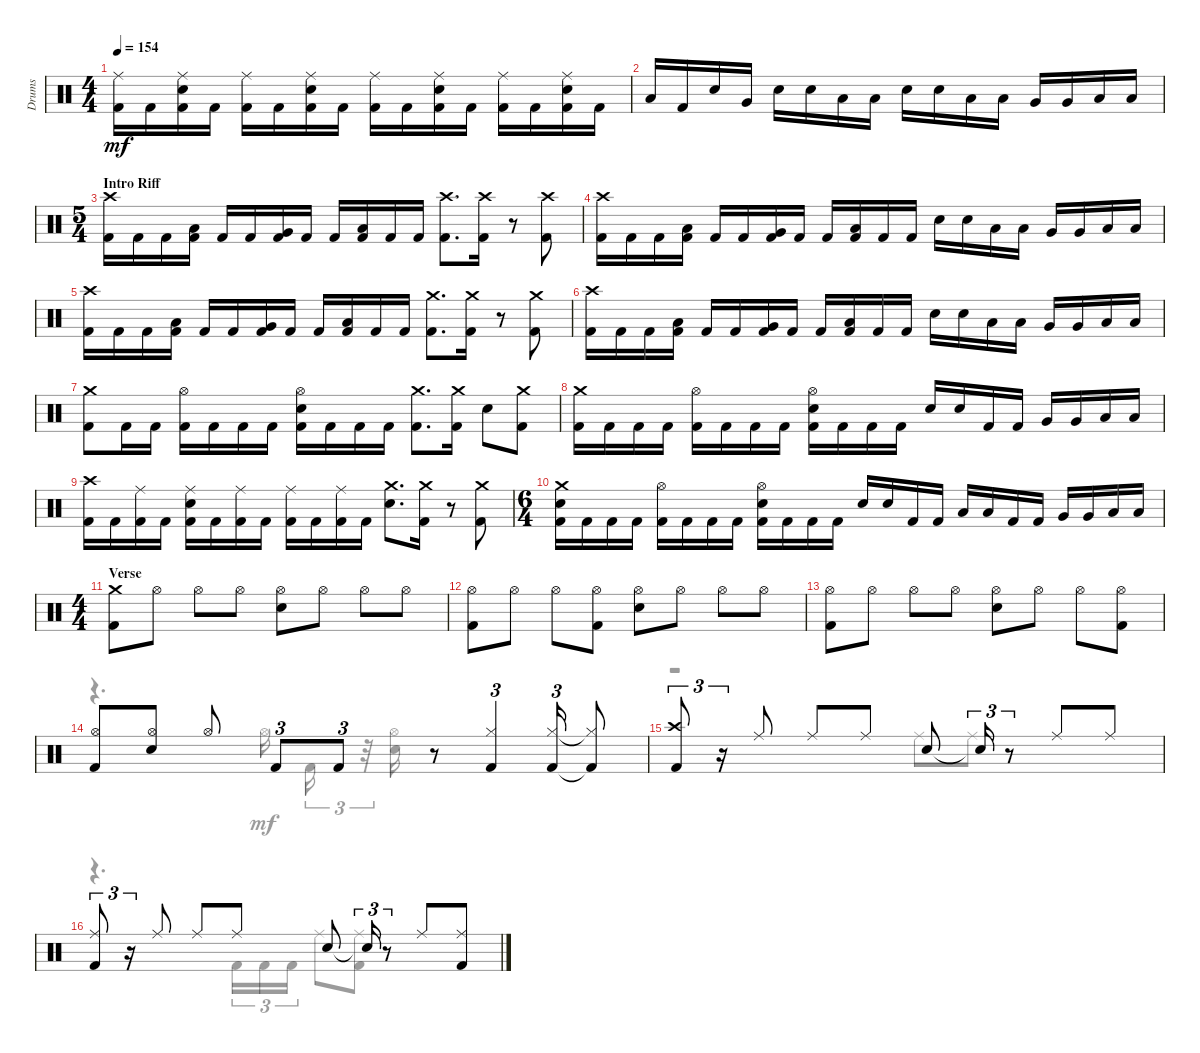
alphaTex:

\track ("Drums" "Drums") {instrument percussion}
\staff {score}
\articulation defaults
\voice
\ts (4 4)
\tempo 154
\clef neutral
\ks aminor
("Ride (middle)" "Kick (hit) 2").16{dy mf} "Kick (hit) 2".16 ("Ride (middle)" "Snare (hit) 2" "Kick (hit) 2").16 "Kick (hit) 2".16 ("Kick (hit) 2" "Ride (middle)").16 "Kick (hit) 2".16 ("Snare (hit) 2" "Ride (middle)" "Kick (hit) 2").16 "Kick (hit) 2".16 ("Kick (hit) 2" "Ride (middle)").16 "Kick (hit) 2".16 ("Kick (hit) 2" "Snare (hit) 2" "Ride (middle)").16 "Kick (hit) 2".16 ("Kick (hit) 2" "Ride (middle)").16 "Kick (hit) 2".16 ("Ride (middle)" "Kick (hit) 2" "Snare (hit) 2").16 "Kick (hit) 2".16 |
"Low Tom (hit)".16 "Kick (hit) 2".16 "Snare (hit) 2".16 "Very Low Tom (hit)".16 "Snare (hit) 2".16 "Snare (hit) 2".16 "Low Floor Tom (hit)".16 "Low Floor Tom (hit)".16 "Snare (hit) 2".16 "Snare (hit) 2".16 "Low Tom (hit)".16 "Low Tom (hit)".16 "Very Low Tom (hit)".16 "Very Low Tom (hit)".16 "Low Floor Tom (hit)".16 "Low Floor Tom (hit)".16 |
\ts (5 4)
\section ("" "Intro Riff")
("Kick (hit) 2" "Crash high (hit)").16 "Kick (hit) 2".16 "Kick (hit) 2".16 ("Kick (hit) 2" "Low Tom (hit)").16 "Kick (hit) 2".16 "Kick (hit) 2".16 ("Very Low Tom (hit)" "Kick (hit) 2").16 "Kick (hit) 2".16 "Kick (hit) 2".16 ("Kick (hit) 2" "Low Floor Tom (hit)").16 "Kick (hit) 2".16 "Kick (hit) 2".16 ("Crash high (hit)" "Kick (hit) 2").8{d} ("Crash high (hit)" "Kick (hit) 2").16 r.8 ("Kick (hit) 2" "Crash high (hit)").8 |
("Kick (hit) 2" "Crash high (hit)").16 "Kick (hit) 2".16 "Kick (hit) 2".16 ("Kick (hit) 2" "Low Tom (hit)").16 "Kick (hit) 2".16 "Kick (hit) 2".16 ("Kick (hit) 2" "Very Low Tom (hit)").16 "Kick (hit) 2".16 "Kick (hit) 2".16 ("Low Floor Tom (hit)" "Kick (hit) 2").16 "Kick (hit) 2".16 "Kick (hit) 2".16 "Snare (hit) 2".16 "Snare (hit) 2".16 "Low Tom (hit)".16 "Low Tom (hit)".16 "Very Low Tom (hit)".16 "Very Low Tom (hit)".16 "Low Floor Tom (hit)".16 "Low Floor Tom (hit)".16 |
("Crash high (hit)" "Kick (hit) 2").16 "Kick (hit) 2".16 "Kick (hit) 2".16 ("Low Tom (hit)" "Kick (hit) 2").16 "Kick (hit) 2".16 "Kick (hit) 2".16 ("Kick (hit) 2" "Very Low Tom (hit)").16 "Kick (hit) 2".16 "Kick (hit) 2".16 ("Kick (hit) 2" "Low Floor Tom (hit)").16 "Kick (hit) 2".16 "Kick (hit) 2".16 ("Kick (hit) 2" "Crash medium (hit)").8{d} ("Crash medium (hit)" "Kick (hit) 2").16 r.8 ("Kick (hit) 2" "Crash medium (hit)").8 |
("Kick (hit) 2" "Crash high (hit)").16 "Kick (hit) 2".16 "Kick (hit) 2".16 ("Kick (hit) 2" "Low Tom (hit)").16 "Kick (hit) 2".16 "Kick (hit) 2".16 ("Kick (hit) 2" "Very Low Tom (hit)").16 "Kick (hit) 2".16 "Kick (hit) 2".16 ("Kick (hit) 2" "Low Floor Tom (hit)").16 "Kick (hit) 2".16 "Kick (hit) 2".16 "Snare (hit) 2".16 "Snare (hit) 2".16 "Low Tom (hit)".16 "Low Tom (hit)".16 "Very Low Tom (hit)".16 "Very Low Tom (hit)".16 "Low Floor Tom (hit)".16 "Low Floor Tom (hit)".16 |
("Kick (hit) 2" "Crash medium (hit)").8 "Kick (hit) 2".16 "Kick (hit) 2".16 ("Kick (hit) 2" "Hi-Hat (open)").16 "Kick (hit) 2".16 "Kick (hit) 2".16 "Kick (hit) 2".16 ("Snare (hit) 2" "Hi-Hat (open)" "Kick (hit) 2").16 "Kick (hit) 2".16 "Kick (hit) 2".16 "Kick (hit) 2".16 ("Kick (hit) 2" "Crash medium (hit)").8{d} ("Crash medium (hit)" "Kick (hit) 2").16 "Snare (hit) 2".8 ("Kick (hit) 2" "Crash medium (hit)").8 |
("Kick (hit) 2" "Crash medium (hit)").16 "Kick (hit) 2".16 "Kick (hit) 2".16 "Kick (hit) 2".16 ("Kick (hit) 2" "Hi-Hat (open)").16 "Kick (hit) 2".16 "Kick (hit) 2".16 "Kick (hit) 2".16 ("Hi-Hat (open)" "Kick (hit) 2" "Snare (hit) 2").16 "Kick (hit) 2".16 "Kick (hit) 2".16 "Kick (hit) 2".16 "Snare (hit) 2".16 "Snare (hit) 2".16 "Kick (hit) 2".16 "Kick (hit) 2".16 "Very Low Tom (hit)".16 "Very Low Tom (hit)".16 "Low Floor Tom (hit)".16 "Low Floor Tom (hit)".16 |
("Crash high (hit)" "Kick (hit) 2").16 "Kick (hit) 2".16 ("Ride (middle)" "Kick (hit) 2").16 "Kick (hit) 2".16 ("Ride (middle)" "Kick (hit) 2" "Snare (hit) 2").16 "Kick (hit) 2".16 ("Kick (hit) 2" "Ride (middle)").16 "Kick (hit) 2".16 ("Kick (hit) 2" "Ride (middle)").16 "Kick (hit) 2".16 ("Kick (hit) 2" "Ride (middle)").16 "Kick (hit) 2".16 ("Crash medium (hit)" "Snare (hit) 2").8{d} ("Crash medium (hit)" "Kick (hit) 2").16 r.8 ("Crash medium (hit)" "Kick (hit) 2").8 |
\ts (6 4)
("Kick (hit) 2" "Snare (hit) 2" "Crash medium (hit)").16 "Kick (hit) 2".16 "Kick (hit) 2".16 "Kick (hit) 2".16 ("Kick (hit) 2" "Hi-Hat (open)").16 "Kick (hit) 2".16 "Kick (hit) 2".16 "Kick (hit) 2".16 ("Snare (hit) 2" "Kick (hit) 2" "Hi-Hat (open)").16 "Kick (hit) 2".16 "Kick (hit) 2".16 "Kick (hit) 2".16 "Snare (hit) 2".16 "Snare (hit) 2".16 "Kick (hit) 2".16 "Kick (hit) 2".16 "Low Tom (hit)".16 "Low Tom (hit)".16 "Kick (hit) 2".16 "Kick (hit) 2".16 "Very Low Tom (hit)".16 "Very Low Tom (hit)".16 "Low Floor Tom (hit)".16 "Low Floor Tom (hit)".16 |
\ts (4 4)
\section ("" "Verse")
("Crash medium (hit)" "Kick (hit) 2").8 "Hi-Hat (open)".8 "Hi-Hat (open)".8 "Hi-Hat (open)".8 ("Hi-Hat (open)" "Snare (hit) 2").8 "Hi-Hat (open)".8 "Hi-Hat (open)".8 "Hi-Hat (open)".8 |
("Kick (hit) 2" "Hi-Hat (open)").8 "Hi-Hat (open)".8 "Hi-Hat (open)".8 ("Hi-Hat (open)" "Kick (hit) 2").8 ("Snare (hit) 2" "Hi-Hat (open)").8 "Hi-Hat (open)".8 "Hi-Hat (open)".8 "Hi-Hat (open)".8 |
("Hi-Hat (open)" "Kick (hit) 2").8 "Hi-Hat (open)".8 "Hi-Hat (open)".8 "Hi-Hat (open)".8 ("Snare (hit) 2" "Hi-Hat (open)").8 "Hi-Hat (open)".8 "Hi-Hat (open)".8 ("Kick (hit) 2" "Hi-Hat (open)").8 |
("Hi-Hat (open)" "Kick (hit) 2").8 ("Snare (hit) 2" "Hi-Hat (open)").8 "Hi-Hat (open)".8 "Kick (hit) 2".8{tu (3 2)} "Kick (hit) 2".8{tu (3 2)} r.8 ("Kick (hit) 2" "Hi-Hat (closed)").4{tu (3 2)} ("Kick (hit) 2" "Hi-Hat (closed)").16{tu (3 2)} ("Kick (hit) 2"{t} "Hi-Hat (closed)"{t}).8 |
("Kick (hit) 2" "Crash high (hit)").8{tu (3 2)} r.16{tu (3 2)} "Ride (middle)".8 "Ride (middle)".8 "Ride (middle)".8 "Snare (hit) 2".8 "Snare (hit) 2"{t}.16{tu (3 2)} r.8{tu (3 2)} "Ride (middle)".8 "Ride (middle)".8 |
("Ride (middle)" "Kick (hit) 2").8{tu (3 2)} r.16{tu (3 2)} "Ride (middle)".8 "Ride (middle)".8 "Ride (middle)".8 "Snare (hit) 2".8 "Snare (hit) 2"{t}.16{tu (3 2)} r.8{tu (3 2)} "Ride (middle)".8 ("Ride (middle)" "Kick (hit) 2").8
\voice
\clef neutral
\ottava regular
\simile none
\ks aminor
|
|
|
|
|
|
|
|
|
|
|
|
|
r.4{d} "Hi-Hat (open)".16 "Kick (hit) 2".16{tu (3 2)} r.32{tu (3 2)} ("Hi-Hat (open)" "Snare (hit) 2").16 |
r.2 "Ride (middle)".8 "Ride (middle)".8 |
r.4{d} "Kick (hit) 2".16{tu (3 2)} "Kick (hit) 2".16{tu (3 2)} "Kick (hit) 2".16{tu (3 2)} "Ride (middle)".8 ("Ride (middle)" "Kick (hit) 2").8
